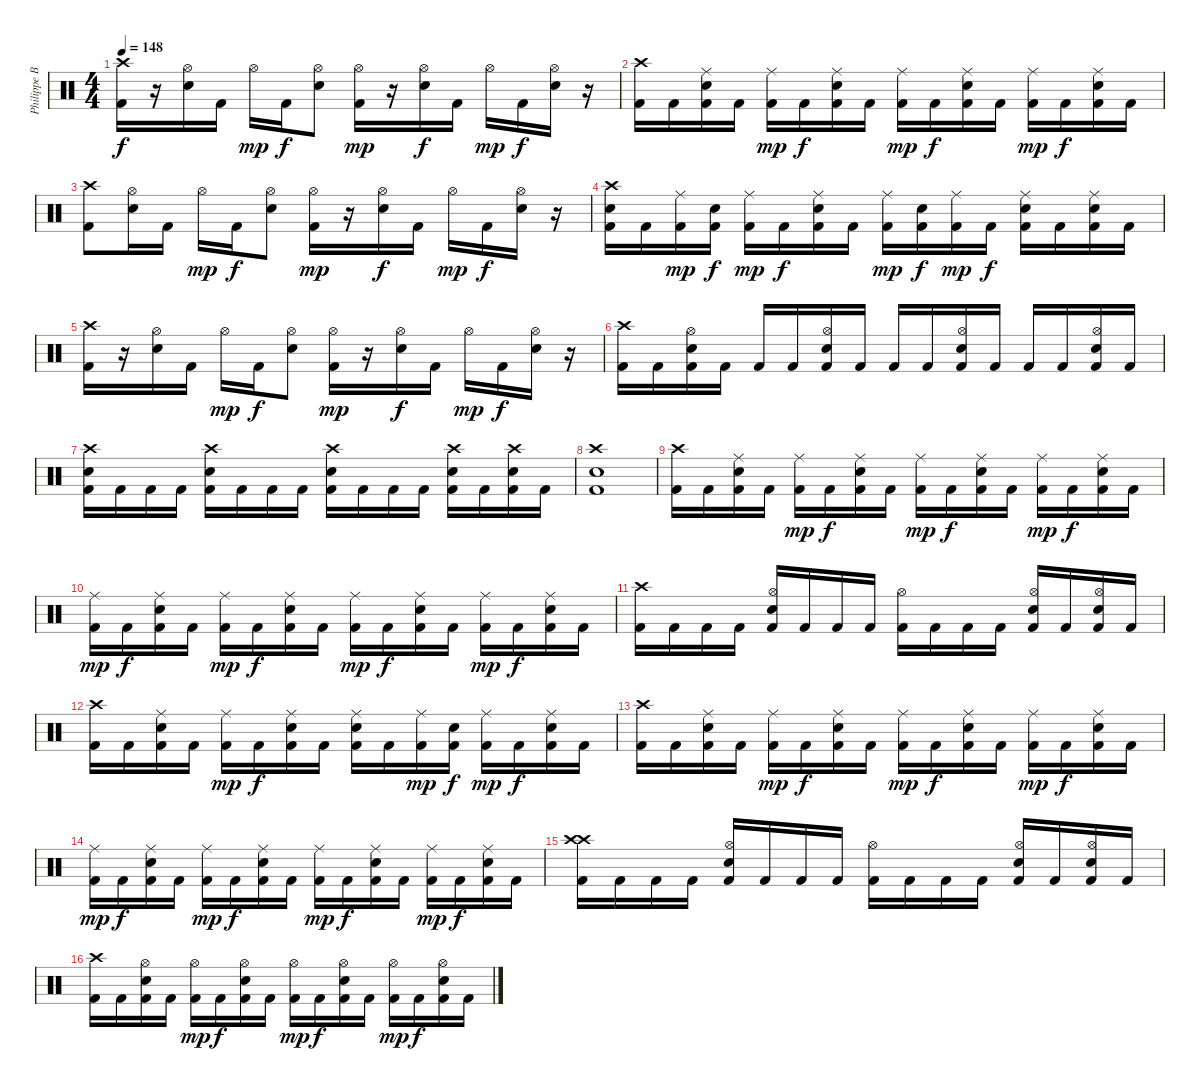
\track ("Philippe Borda" "Philippe B") {instrument percussion}
\staff {score}
\articulation defaults
\ts (4 4)
\tempo 148
\clef neutral
\ks c
("Crash high (hit)" "Kick (hit) 2").16{dy f} r.16 ("Hi-Hat (open)" "Snare (hit) 2").16 "Kick (hit) 2".16 "Hi-Hat (open)".16{dy mp} "Kick (hit) 2".16{dy f} ("Hi-Hat (open)" "Snare (hit) 2").8 ("Hi-Hat (open)" "Kick (hit) 2").16{dy mp} r.16 ("Hi-Hat (open)" "Snare (hit) 2").16{dy f} "Kick (hit) 2".16 "Hi-Hat (open)".16{dy mp} "Kick (hit) 2".16{dy f} ("Hi-Hat (open)" "Snare (hit) 2").16 r.16 |
("Crash high (hit)" "Kick (hit) 2").16 "Kick (hit) 2".16 ("Kick (hit) 2" "Ride (middle)" "Snare (hit) 2").16 "Kick (hit) 2".16 ("Kick (hit) 2" "Ride (middle)").16{dy mp} "Kick (hit) 2".16{dy f} ("Kick (hit) 2" "Ride (middle)" "Snare (hit) 2").16 "Kick (hit) 2".16 ("Kick (hit) 2" "Ride (middle)").16{dy mp} "Kick (hit) 2".16{dy f} ("Kick (hit) 2" "Ride (middle)" "Snare (hit) 2").16 "Kick (hit) 2".16 ("Kick (hit) 2" "Ride (middle)").16{dy mp} "Kick (hit) 2".16{dy f} ("Kick (hit) 2" "Ride (middle)" "Snare (hit) 2").16 "Kick (hit) 2".16 |
("Crash high (hit)" "Kick (hit) 2").8 ("Snare (hit) 2" "Hi-Hat (open)").16 "Kick (hit) 2".16 "Hi-Hat (open)".16{dy mp} "Kick (hit) 2".16{dy f} ("Snare (hit) 2" "Hi-Hat (open)").8 ("Kick (hit) 2" "Hi-Hat (open)").16{dy mp} r.16 ("Snare (hit) 2" "Hi-Hat (open)").16{dy f} "Kick (hit) 2".16 "Hi-Hat (open)".16{dy mp} "Kick (hit) 2".16{dy f} ("Snare (hit) 2" "Hi-Hat (open)").16 r.16 |
("Crash high (hit)" "Kick (hit) 2" "Snare (hit) 2").16 "Kick (hit) 2".16 ("Kick (hit) 2" "Ride (middle)").16{dy mp} ("Snare (hit) 2" "Kick (hit) 2").16{dy f} ("Kick (hit) 2" "Ride (middle)").16{dy mp} "Kick (hit) 2".16{dy f} ("Kick (hit) 2" "Snare (hit) 2" "Ride (middle)").16 "Kick (hit) 2".16 ("Kick (hit) 2" "Ride (middle)").16{dy mp} ("Snare (hit) 2" "Kick (hit) 2").16{dy f} ("Kick (hit) 2" "Ride (middle)").16{dy mp} "Kick (hit) 2".16{dy f} ("Kick (hit) 2" "Snare (hit) 2" "Ride (middle)").16 "Kick (hit) 2".16 ("Kick (hit) 2" "Snare (hit) 2" "Ride (middle)").16 "Kick (hit) 2".16 |
("Crash high (hit)" "Kick (hit) 2").16 r.16 ("Snare (hit) 2" "Hi-Hat (open)").16 "Kick (hit) 2".16 "Hi-Hat (open)".16{dy mp} "Kick (hit) 2".16{dy f} ("Snare (hit) 2" "Hi-Hat (open)").8 ("Kick (hit) 2" "Hi-Hat (open)").16{dy mp} r.16 ("Snare (hit) 2" "Hi-Hat (open)").16{dy f} "Kick (hit) 2".16 "Hi-Hat (open)".16{dy mp} "Kick (hit) 2".16{dy f} ("Snare (hit) 2" "Hi-Hat (open)").16 r.16 |
("Crash high (hit)" "Kick (hit) 2").16 "Kick (hit) 2".16 ("Kick (hit) 2" "Snare (hit) 2" "Hi-Hat (open)").16 "Kick (hit) 2".16 "Kick (hit) 2".16 "Kick (hit) 2".16 ("Kick (hit) 2" "Snare (hit) 2" "Hi-Hat (open)").16 "Kick (hit) 2".16 "Kick (hit) 2".16 "Kick (hit) 2".16 ("Kick (hit) 2" "Snare (hit) 2" "Hi-Hat (open)").16 "Kick (hit) 2".16 "Kick (hit) 2".16 "Kick (hit) 2".16 ("Kick (hit) 2" "Snare (hit) 2" "Hi-Hat (open)").16 "Kick (hit) 2".16 |
("Crash high (hit)" "Kick (hit) 2" "Snare (hit) 2").16 "Kick (hit) 2".16 "Kick (hit) 2".16 "Kick (hit) 2".16 ("Crash high (hit)" "Kick (hit) 2" "Snare (hit) 2").16 "Kick (hit) 2".16 "Kick (hit) 2".16 "Kick (hit) 2".16 ("Crash high (hit)" "Kick (hit) 2" "Snare (hit) 2").16 "Kick (hit) 2".16 "Kick (hit) 2".16 "Kick (hit) 2".16 ("Crash high (hit)" "Kick (hit) 2" "Snare (hit) 2").16 "Kick (hit) 2".16 ("Crash high (hit)" "Kick (hit) 2" "Snare (hit) 2").16 "Kick (hit) 2".16 |
("Crash high (hit)" "Kick (hit) 2" "Snare (hit) 2").1 |
("Crash high (hit)" "Kick (hit) 2").16 "Kick (hit) 2".16 ("Kick (hit) 2" "Ride (middle)" "Snare (hit) 2").16 "Kick (hit) 2".16 ("Kick (hit) 2" "Ride (middle)").16{dy mp} "Kick (hit) 2".16{dy f} ("Kick (hit) 2" "Ride (middle)" "Snare (hit) 2").16 "Kick (hit) 2".16 ("Kick (hit) 2" "Ride (middle)").16{dy mp} "Kick (hit) 2".16{dy f} ("Kick (hit) 2" "Ride (middle)" "Snare (hit) 2").16 "Kick (hit) 2".16 ("Kick (hit) 2" "Ride (middle)").16{dy mp} "Kick (hit) 2".16{dy f} ("Kick (hit) 2" "Snare (hit) 2" "Ride (middle)").16 "Kick (hit) 2".16 |
("Kick (hit) 2" "Ride (middle)").16{dy mp} "Kick (hit) 2".16{dy f} ("Kick (hit) 2" "Snare (hit) 2" "Ride (middle)").16 "Kick (hit) 2".16 ("Kick (hit) 2" "Ride (middle)").16{dy mp} "Kick (hit) 2".16{dy f} ("Kick (hit) 2" "Snare (hit) 2" "Ride (middle)").16 "Kick (hit) 2".16 ("Kick (hit) 2" "Ride (middle)").16{dy mp} "Kick (hit) 2".16{dy f} ("Kick (hit) 2" "Snare (hit) 2" "Ride (middle)").16 "Kick (hit) 2".16 ("Kick (hit) 2" "Ride (middle)").16{dy mp} "Kick (hit) 2".16{dy f} ("Kick (hit) 2" "Snare (hit) 2" "Ride (middle)").16 "Kick (hit) 2".16 |
("Crash high (hit)" "Kick (hit) 2").16 "Kick (hit) 2".16 "Kick (hit) 2".16 "Kick (hit) 2".16 ("Kick (hit) 2" "Snare (hit) 2" "Hi-Hat (open)").16 "Kick (hit) 2".16 "Kick (hit) 2".16 "Kick (hit) 2".16 ("Kick (hit) 2" "Hi-Hat (open)").16 "Kick (hit) 2".16 "Kick (hit) 2".16 "Kick (hit) 2".16 ("Kick (hit) 2" "Hi-Hat (open)" "Snare (hit) 2").16 "Kick (hit) 2".16 ("Kick (hit) 2" "Hi-Hat (open)" "Snare (hit) 2").16 "Kick (hit) 2".16 |
("Crash high (hit)" "Kick (hit) 2").16 "Kick (hit) 2".16 ("Kick (hit) 2" "Snare (hit) 2" "Ride (middle)").16 "Kick (hit) 2".16 ("Kick (hit) 2" "Ride (middle)").16{dy mp} "Kick (hit) 2".16{dy f} ("Kick (hit) 2" "Snare (hit) 2" "Ride (middle)").16 "Kick (hit) 2".16 ("Kick (hit) 2" "Snare (hit) 2" "Ride (middle)").16 "Kick (hit) 2".16 ("Kick (hit) 2" "Ride (middle)").16{dy mp} ("Snare (hit) 2" "Kick (hit) 2").16{dy f} ("Kick (hit) 2" "Ride (middle)").16{dy mp} "Kick (hit) 2".16{dy f} ("Kick (hit) 2" "Snare (hit) 2" "Ride (middle)").16 "Kick (hit) 2".16 |
("Crash high (hit)" "Kick (hit) 2").16 "Kick (hit) 2".16 ("Kick (hit) 2" "Snare (hit) 2" "Ride (middle)").16 "Kick (hit) 2".16 ("Kick (hit) 2" "Ride (middle)").16{dy mp} "Kick (hit) 2".16{dy f} ("Kick (hit) 2" "Snare (hit) 2" "Ride (middle)").16 "Kick (hit) 2".16 ("Kick (hit) 2" "Ride (middle)").16{dy mp} "Kick (hit) 2".16{dy f} ("Kick (hit) 2" "Snare (hit) 2" "Ride (middle)").16 "Kick (hit) 2".16 ("Kick (hit) 2" "Ride (middle)").16{dy mp} "Kick (hit) 2".16{dy f} ("Kick (hit) 2" "Snare (hit) 2" "Ride (middle)").16 "Kick (hit) 2".16 |
("Kick (hit) 2" "Ride (middle)").16{dy mp} "Kick (hit) 2".16{dy f} ("Kick (hit) 2" "Snare (hit) 2" "Ride (middle)").16 "Kick (hit) 2".16 ("Kick (hit) 2" "Ride (middle)").16{dy mp} "Kick (hit) 2".16{dy f} ("Kick (hit) 2" "Snare (hit) 2" "Ride (middle)").16 "Kick (hit) 2".16 ("Kick (hit) 2" "Ride (middle)").16{dy mp} "Kick (hit) 2".16{dy f} ("Kick (hit) 2" "Snare (hit) 2" "Ride (middle)").16 "Kick (hit) 2".16 ("Kick (hit) 2" "Ride (middle)").16{dy mp} "Kick (hit) 2".16{dy f} ("Kick (hit) 2" "Snare (hit) 2" "Ride (middle)").16 "Kick (hit) 2".16 |
("Crash high (hit)" "Kick (hit) 2" "Crash high (hit)").16 "Kick (hit) 2".16 "Kick (hit) 2".16 "Kick (hit) 2".16 ("Kick (hit) 2" "Snare (hit) 2" "Hi-Hat (open)").16 "Kick (hit) 2".16 "Kick (hit) 2".16 "Kick (hit) 2".16 ("Kick (hit) 2" "Hi-Hat (open)").16 "Kick (hit) 2".16 "Kick (hit) 2".16 "Kick (hit) 2".16 ("Kick (hit) 2" "Snare (hit) 2" "Hi-Hat (open)").16 "Kick (hit) 2".16 ("Kick (hit) 2" "Hi-Hat (open)" "Snare (hit) 2").16 "Kick (hit) 2".16 |
("Crash high (hit)" "Kick (hit) 2").16 "Kick (hit) 2".16 ("Kick (hit) 2" "Snare (hit) 2" "Hi-Hat (open)").16 "Kick (hit) 2".16 ("Kick (hit) 2" "Hi-Hat (open)").16{dy mp} "Kick (hit) 2".16{dy f} ("Kick (hit) 2" "Snare (hit) 2" "Hi-Hat (open)").16 "Kick (hit) 2".16 ("Kick (hit) 2" "Hi-Hat (open)").16{dy mp} "Kick (hit) 2".16{dy f} ("Kick (hit) 2" "Snare (hit) 2" "Hi-Hat (open)").16 "Kick (hit) 2".16 ("Kick (hit) 2" "Hi-Hat (open)").16{dy mp} "Kick (hit) 2".16{dy f} ("Kick (hit) 2" "Snare (hit) 2" "Hi-Hat (open)").16 "Kick (hit) 2".16
